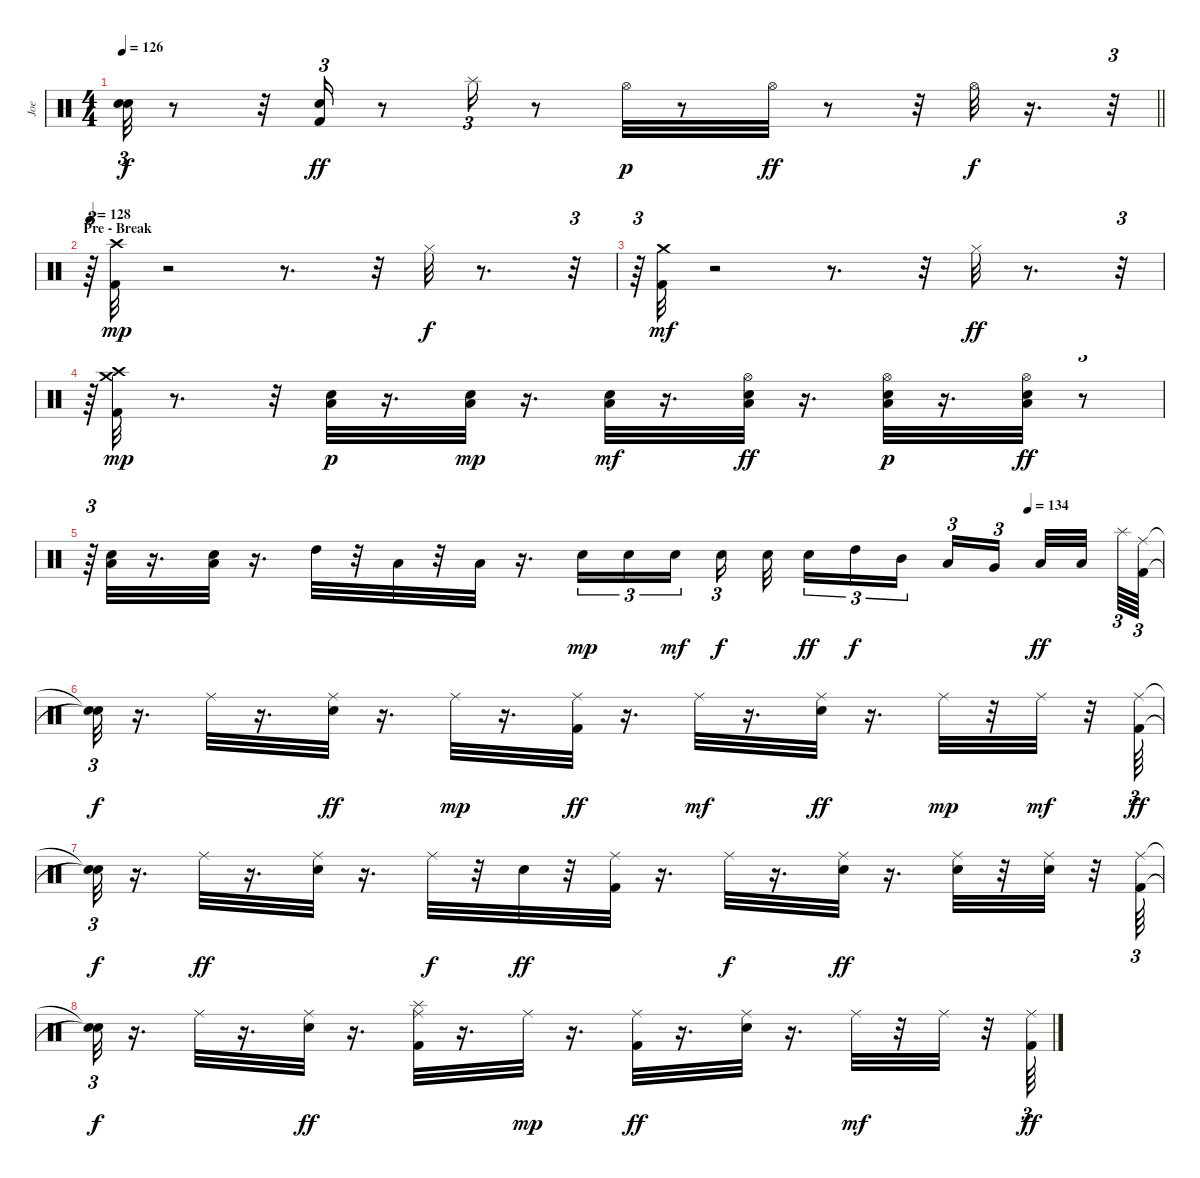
\track ("Joe" "Joe") {instrument percussion}
\staff {score}
\articulation defaults
\ts (4 4)
\tempo 126
\clef neutral
\barLineRight lightlight
\ks c
("Snare (hit)"{t} "Snare (hit)"{t}).32{tu (3 2) dy f} r.8 r.32 ("Electric Snare (hit)" "Kick (hit) 2").16{tu (3 2) dy ff} r.8 "Splash (hit)".16{tu (3 2)} r.8 "Hi-Hat (open)".32{dy p} r.8 "Hi-Hat (open)".32{dy ff} r.8 r.32 "Hi-Hat (open)".32{dy f} r.16{d} r.32{tu (3 2)} |
\section ("" "Pre - Break")
\tempo 128
r.64{tu (3 2)} ("Kick (hit) 2" "Crash high (hit)").32{dy mp} r.2 r.8{d} r.32 "Hi-Hat (closed)".32{dy f} r.8{d} r.32{tu (3 2)} |
r.64{tu (3 2)} ("Kick (hit) 2" "Crash medium (hit)").32{dy mf} r.2 r.8{d} r.32 "Hi-Hat (closed)".32{dy ff} r.8{d} r.32{tu (3 2)} |
r.64{tu (3 2)} ("Crash high (hit)" "Kick (hit) 2" "Crash medium (hit)").32{dy mp} r.8{d} r.32 ("Low Floor Tom (hit)" "Electric Snare (hit)").32{dy p} r.16{d} ("Low Floor Tom (hit)" "Electric Snare (hit)").32{dy mp} r.16{d} ("Low Floor Tom (hit)" "Electric Snare (hit)").32{dy mf} r.16{d} ("Hi-Hat (open)" "Electric Snare (hit)" "Low Floor Tom (hit)").32{dy ff} r.16{d} ("Low Floor Tom (hit)" "Electric Snare (hit)" "Hi-Hat (open)").32{dy p} r.16{d} ("Hi-Hat (open)" "Low Floor Tom (hit)" "Electric Snare (hit)").32{dy ff} r.8{tu (3 2)} |
\tempo (134 0.875)
r.64{tu (3 2)} ("Electric Snare (hit)" "Low Floor Tom (hit)").32 r.16{d} ("Electric Snare (hit)" "Low Floor Tom (hit)").32 r.16{d} "High Tom (hit)".32 r.32 "Low Tom (hit)".32 r.32 "Low Tom (hit)".32 r.16{d} "Electric Snare (hit)".16{tu (3 2) dy mp} "Electric Snare (hit)".16{tu (3 2)} "Electric Snare (hit)".16{tu (3 2) dy mf beam splitsecondary} "Electric Snare (hit)".16{tu (3 2) dy f beam splitsecondary} "Electric Snare (hit)".32 "Electric Snare (hit)".16{tu (3 2) dy ff} "High Tom (hit)".16{tu (3 2) dy f} "Mid Tom (hit)".16{tu (3 2) beam splitsecondary} "Low Tom (hit)".16{tu (3 2)} "Very Low Tom (hit)".16{tu (3 2) beam splitsecondary} "Low Floor Tom (hit)".32{dy ff} "Low Floor Tom (hit)".32{beam splitsecondary} "Splash (hit)".64{tu (3 2)} ("Kick (hit) 2" "Ride (middle)").64{tu (3 2)} |
("Snare (hit)"{t} "Snare (hit)"{t}).32{tu (3 2) dy f} r.16{d} "Ride (middle)".32 r.16{d} ("Electric Snare (hit)" "Ride (middle)").32{dy ff} r.16{d} "Ride (middle)".32{dy mp} r.16{d} ("Kick (hit) 2" "Ride (middle)").32{dy ff} r.16{d} "Ride (middle)".32{dy mf} r.16{d} ("Ride (middle)" "Electric Snare (hit)").32{dy ff} r.16{d} "Ride (middle)".32{dy mp} r.32 "Ride (middle)".32{dy mf} r.32 ("Ride (middle)" "Kick (hit) 2").64{tu (3 2) dy ff} |
("Snare (hit)"{t} "Snare (hit)"{t}).32{tu (3 2) dy f} r.16{d} "Ride (middle)".32{dy ff} r.16{d} ("Electric Snare (hit)" "Ride (middle)").32 r.16{d} "Ride (middle)".32{dy f} r.32 "Electric Snare (hit)".32{dy ff} r.32 ("Kick (hit) 2" "Ride (middle)").32 r.16{d} "Ride (middle)".32{dy f} r.16{d} ("Electric Snare (hit)" "Ride (middle)").32{dy ff} r.16{d} ("Ride (middle)" "Electric Snare (hit)").32 r.32 ("Electric Snare (hit)" "Ride (middle)").32 r.32 ("Ride (middle)" "Kick (hit) 2").64{tu (3 2)} |
("Snare (hit)"{t} "Snare (hit)"{t}).32{tu (3 2) dy f} r.16{d} "Ride (middle)".32 r.16{d} ("Electric Snare (hit)" "Ride (middle)").32{dy ff} r.16{d} ("Ride (middle)" "Kick (hit) 2" "Splash (hit)").32 r.16{d} "Ride (middle)".32{dy mp} r.16{d} ("Ride (middle)" "Kick (hit) 2").32{dy ff} r.16{d} ("Electric Snare (hit)" "Ride (middle)").32 r.16{d} "Ride (middle)".32{dy mf} r.32 "Ride (middle)".32 r.32 ("Ride (middle)" "Kick (hit) 2").64{tu (3 2) dy ff}
